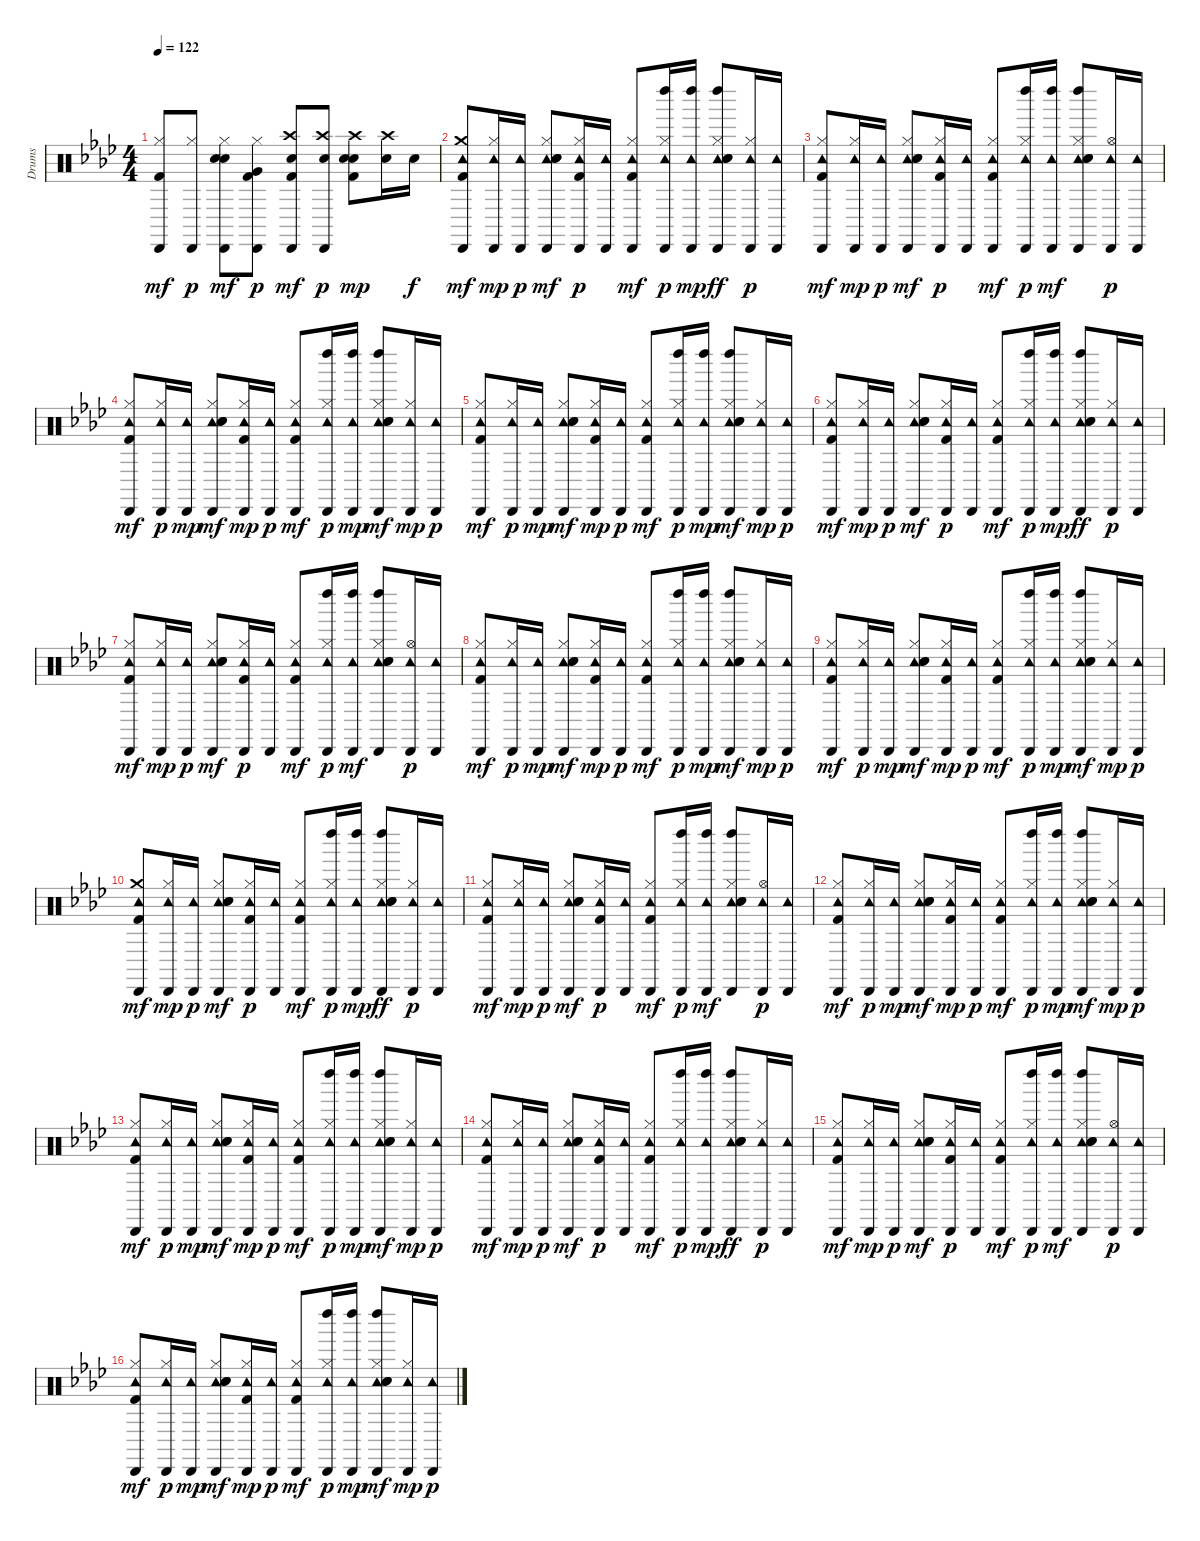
\track ("Drums" "Drums") {instrument percussion}
\staff {score}
\articulation defaults
\ts (4 4)
\tempo 122
\clef neutral
\ks ab
("Hi-Hat (closed)" "Cabasa (hit)" "Kick (hit) 2").8{dy mf} ("Hi-Hat (closed)" "Cabasa (hit)").8{dy p} ("Hi-Hat (closed)" "Cabasa (hit)" "Hand Clap (hit)" "Electric Snare (hit)").8{dy mf} ("Hi-Hat (closed)" "Cabasa (hit)" "Very Low Tom (hit)" "Kick (hit) 2").8{dy p} ("Crash high (hit)" "Cabasa (hit)" "Electric Snare (hit)" "Kick (hit) 2").8{dy mf} ("Crash high (hit)" "Cabasa (hit)" "Electric Snare (hit)").8{dy p} ("Crash high (hit)" "Hand Clap (hit)" "Electric Snare (hit)" "Kick (hit) 2").8{dy mp} ("Crash high (hit)" "Electric Snare (hit)").16 "Electric Snare (hit)".16{dy f} |
("Crash medium (hit)" "Cabasa (hit)" "Tambourine (hit)" "Kick (hit) 2").8{dy mf} ("Hi-Hat (closed)" "Cabasa (hit)" "Tambourine (hit)").16{dy mp} ("Cabasa (hit)" "Tambourine (hit)").16{dy p} ("Hi-Hat (closed)" "Cabasa (hit)" "Tambourine (hit)" "Hand Clap (hit)" "Electric Snare (hit)").8{dy mf} ("Hi-Hat (closed)" "Cabasa (hit)" "Tambourine (hit)" "Kick (hit) 2").16{dy p} ("Cabasa (hit)" "Tambourine (hit)").16 ("Hi-Hat (closed)" "Cabasa (hit)" "Tambourine (hit)" "Kick (hit) 2").8{dy mf} ("Hi-Hat (closed)" "Cabasa (hit)" "Tambourine (hit)" "Left Maraca (hit)").16{dy p} ("Cabasa (hit)" "Tambourine (hit)" "Left Maraca (hit)").16{dy mp} ("Hi-Hat (closed)" "Cabasa (hit)" "Tambourine (hit)" "Left Maraca (hit)" "Electric Snare (hit)" "Hand Clap (hit)").8{dy ff} ("Hi-Hat (closed)" "Cabasa (hit)" "Tambourine (hit)").16{dy p} ("Cabasa (hit)" "Tambourine (hit)").16 |
("Hi-Hat (closed)" "Cabasa (hit)" "Tambourine (hit)" "Kick (hit) 2").8{dy mf} ("Hi-Hat (closed)" "Cabasa (hit)" "Tambourine (hit)").16{dy mp} ("Cabasa (hit)" "Tambourine (hit)").16{dy p} ("Hi-Hat (closed)" "Cabasa (hit)" "Tambourine (hit)" "Hand Clap (hit)" "Electric Snare (hit)").8{dy mf} ("Hi-Hat (closed)" "Cabasa (hit)" "Tambourine (hit)" "Kick (hit) 2").16{dy p} ("Cabasa (hit)" "Tambourine (hit)").16 ("Hi-Hat (closed)" "Cabasa (hit)" "Tambourine (hit)" "Kick (hit) 2").8{dy mf} ("Hi-Hat (closed)" "Cabasa (hit)" "Tambourine (hit)" "Left Maraca (hit)").16{dy p} ("Cabasa (hit)" "Tambourine (hit)" "Left Maraca (hit)").16{dy mf} ("Hi-Hat (closed)" "Cabasa (hit)" "Tambourine (hit)" "Left Maraca (hit)" "Electric Snare (hit)" "Hand Clap (hit)").8 ("Hi-Hat (open)" "Cabasa (hit)" "Tambourine (hit)").16{dy p} ("Cabasa (hit)" "Tambourine (hit)").16 |
("Hi-Hat (closed)" "Cabasa (hit)" "Tambourine (hit)" "Kick (hit) 2").8{dy mf} ("Hi-Hat (closed)" "Cabasa (hit)" "Tambourine (hit)").16{dy p} ("Cabasa (hit)" "Tambourine (hit)").16{dy mp} ("Hi-Hat (closed)" "Cabasa (hit)" "Tambourine (hit)" "Electric Snare (hit)" "Hand Clap (hit)").8{dy mf} ("Hi-Hat (closed)" "Cabasa (hit)" "Tambourine (hit)" "Kick (hit) 2").16{dy mp} ("Cabasa (hit)" "Tambourine (hit)").16{dy p} ("Hi-Hat (closed)" "Cabasa (hit)" "Tambourine (hit)" "Kick (hit) 2").8{dy mf} ("Hi-Hat (closed)" "Cabasa (hit)" "Tambourine (hit)" "Left Maraca (hit)").16{dy p} ("Cabasa (hit)" "Tambourine (hit)" "Left Maraca (hit)").16{dy mp} ("Hi-Hat (closed)" "Cabasa (hit)" "Tambourine (hit)" "Left Maraca (hit)" "Electric Snare (hit)" "Hand Clap (hit)").8{dy mf} ("Hi-Hat (closed)" "Cabasa (hit)" "Tambourine (hit)").16{dy mp} ("Cabasa (hit)" "Tambourine (hit)").16{dy p} |
("Hi-Hat (closed)" "Cabasa (hit)" "Tambourine (hit)" "Kick (hit) 2").8{dy mf} ("Hi-Hat (closed)" "Cabasa (hit)" "Tambourine (hit)").16{dy p} ("Cabasa (hit)" "Tambourine (hit)").16{dy mp} ("Hi-Hat (closed)" "Cabasa (hit)" "Tambourine (hit)" "Electric Snare (hit)" "Hand Clap (hit)").8{dy mf} ("Hi-Hat (closed)" "Cabasa (hit)" "Tambourine (hit)" "Kick (hit) 2").16{dy mp} ("Cabasa (hit)" "Tambourine (hit)").16{dy p} ("Hi-Hat (closed)" "Cabasa (hit)" "Tambourine (hit)" "Kick (hit) 2").8{dy mf} ("Hi-Hat (closed)" "Cabasa (hit)" "Tambourine (hit)" "Left Maraca (hit)").16{dy p} ("Cabasa (hit)" "Tambourine (hit)" "Left Maraca (hit)").16{dy mp} ("Hi-Hat (closed)" "Cabasa (hit)" "Tambourine (hit)" "Left Maraca (hit)" "Electric Snare (hit)" "Hand Clap (hit)").8{dy mf} ("Hi-Hat (closed)" "Cabasa (hit)" "Tambourine (hit)").16{dy mp} ("Cabasa (hit)" "Tambourine (hit)").16{dy p} |
("Hi-Hat (closed)" "Cabasa (hit)" "Tambourine (hit)" "Kick (hit) 2").8{dy mf} ("Hi-Hat (closed)" "Cabasa (hit)" "Tambourine (hit)").16{dy mp} ("Cabasa (hit)" "Tambourine (hit)").16{dy p} ("Hi-Hat (closed)" "Cabasa (hit)" "Tambourine (hit)" "Hand Clap (hit)" "Electric Snare (hit)").8{dy mf} ("Hi-Hat (closed)" "Cabasa (hit)" "Tambourine (hit)" "Kick (hit) 2").16{dy p} ("Cabasa (hit)" "Tambourine (hit)").16 ("Hi-Hat (closed)" "Cabasa (hit)" "Tambourine (hit)" "Kick (hit) 2").8{dy mf} ("Hi-Hat (closed)" "Cabasa (hit)" "Tambourine (hit)" "Left Maraca (hit)").16{dy p} ("Cabasa (hit)" "Tambourine (hit)" "Left Maraca (hit)").16{dy mp} ("Hi-Hat (closed)" "Cabasa (hit)" "Tambourine (hit)" "Left Maraca (hit)" "Electric Snare (hit)" "Hand Clap (hit)").8{dy ff} ("Hi-Hat (closed)" "Cabasa (hit)" "Tambourine (hit)").16{dy p} ("Cabasa (hit)" "Tambourine (hit)").16 |
("Hi-Hat (closed)" "Cabasa (hit)" "Tambourine (hit)" "Kick (hit) 2").8{dy mf} ("Hi-Hat (closed)" "Cabasa (hit)" "Tambourine (hit)").16{dy mp} ("Cabasa (hit)" "Tambourine (hit)").16{dy p} ("Hi-Hat (closed)" "Cabasa (hit)" "Tambourine (hit)" "Hand Clap (hit)" "Electric Snare (hit)").8{dy mf} ("Hi-Hat (closed)" "Cabasa (hit)" "Tambourine (hit)" "Kick (hit) 2").16{dy p} ("Cabasa (hit)" "Tambourine (hit)").16 ("Hi-Hat (closed)" "Cabasa (hit)" "Tambourine (hit)" "Kick (hit) 2").8{dy mf} ("Hi-Hat (closed)" "Cabasa (hit)" "Tambourine (hit)" "Left Maraca (hit)").16{dy p} ("Cabasa (hit)" "Tambourine (hit)" "Left Maraca (hit)").16{dy mf} ("Hi-Hat (closed)" "Cabasa (hit)" "Tambourine (hit)" "Left Maraca (hit)" "Electric Snare (hit)" "Hand Clap (hit)").8 ("Hi-Hat (open)" "Cabasa (hit)" "Tambourine (hit)").16{dy p} ("Cabasa (hit)" "Tambourine (hit)").16 |
("Hi-Hat (closed)" "Cabasa (hit)" "Tambourine (hit)" "Kick (hit) 2").8{dy mf} ("Hi-Hat (closed)" "Cabasa (hit)" "Tambourine (hit)").16{dy p} ("Cabasa (hit)" "Tambourine (hit)").16{dy mp} ("Hi-Hat (closed)" "Cabasa (hit)" "Tambourine (hit)" "Electric Snare (hit)" "Hand Clap (hit)").8{dy mf} ("Hi-Hat (closed)" "Cabasa (hit)" "Tambourine (hit)" "Kick (hit) 2").16{dy mp} ("Cabasa (hit)" "Tambourine (hit)").16{dy p} ("Hi-Hat (closed)" "Cabasa (hit)" "Tambourine (hit)" "Kick (hit) 2").8{dy mf} ("Hi-Hat (closed)" "Cabasa (hit)" "Tambourine (hit)" "Left Maraca (hit)").16{dy p} ("Cabasa (hit)" "Tambourine (hit)" "Left Maraca (hit)").16{dy mp} ("Hi-Hat (closed)" "Cabasa (hit)" "Tambourine (hit)" "Left Maraca (hit)" "Electric Snare (hit)" "Hand Clap (hit)").8{dy mf} ("Hi-Hat (closed)" "Cabasa (hit)" "Tambourine (hit)").16{dy mp} ("Cabasa (hit)" "Tambourine (hit)").16{dy p} |
("Hi-Hat (closed)" "Cabasa (hit)" "Tambourine (hit)" "Kick (hit) 2").8{dy mf} ("Hi-Hat (closed)" "Cabasa (hit)" "Tambourine (hit)").16{dy p} ("Cabasa (hit)" "Tambourine (hit)").16{dy mp} ("Hi-Hat (closed)" "Cabasa (hit)" "Tambourine (hit)" "Electric Snare (hit)" "Hand Clap (hit)").8{dy mf} ("Hi-Hat (closed)" "Cabasa (hit)" "Tambourine (hit)" "Kick (hit) 2").16{dy mp} ("Cabasa (hit)" "Tambourine (hit)").16{dy p} ("Hi-Hat (closed)" "Cabasa (hit)" "Tambourine (hit)" "Kick (hit) 2").8{dy mf} ("Hi-Hat (closed)" "Cabasa (hit)" "Tambourine (hit)" "Left Maraca (hit)").16{dy p} ("Cabasa (hit)" "Tambourine (hit)" "Left Maraca (hit)").16{dy mp} ("Hi-Hat (closed)" "Cabasa (hit)" "Tambourine (hit)" "Left Maraca (hit)" "Electric Snare (hit)" "Hand Clap (hit)").8{dy mf} ("Hi-Hat (closed)" "Cabasa (hit)" "Tambourine (hit)").16{dy mp} ("Cabasa (hit)" "Tambourine (hit)").16{dy p} |
("Crash medium (hit)" "Cabasa (hit)" "Tambourine (hit)" "Kick (hit) 2").8{dy mf} ("Hi-Hat (closed)" "Cabasa (hit)" "Tambourine (hit)").16{dy mp} ("Cabasa (hit)" "Tambourine (hit)").16{dy p} ("Hi-Hat (closed)" "Cabasa (hit)" "Tambourine (hit)" "Hand Clap (hit)" "Electric Snare (hit)").8{dy mf} ("Hi-Hat (closed)" "Cabasa (hit)" "Tambourine (hit)" "Kick (hit) 2").16{dy p} ("Cabasa (hit)" "Tambourine (hit)").16 ("Hi-Hat (closed)" "Cabasa (hit)" "Tambourine (hit)" "Kick (hit) 2").8{dy mf} ("Hi-Hat (closed)" "Cabasa (hit)" "Tambourine (hit)" "Left Maraca (hit)").16{dy p} ("Cabasa (hit)" "Tambourine (hit)" "Left Maraca (hit)").16{dy mp} ("Hi-Hat (closed)" "Cabasa (hit)" "Tambourine (hit)" "Left Maraca (hit)" "Electric Snare (hit)" "Hand Clap (hit)").8{dy ff} ("Hi-Hat (closed)" "Cabasa (hit)" "Tambourine (hit)").16{dy p} ("Cabasa (hit)" "Tambourine (hit)").16 |
("Hi-Hat (closed)" "Cabasa (hit)" "Tambourine (hit)" "Kick (hit) 2").8{dy mf} ("Hi-Hat (closed)" "Cabasa (hit)" "Tambourine (hit)").16{dy mp} ("Cabasa (hit)" "Tambourine (hit)").16{dy p} ("Hi-Hat (closed)" "Cabasa (hit)" "Tambourine (hit)" "Hand Clap (hit)" "Electric Snare (hit)").8{dy mf} ("Hi-Hat (closed)" "Cabasa (hit)" "Tambourine (hit)" "Kick (hit) 2").16{dy p} ("Cabasa (hit)" "Tambourine (hit)").16 ("Hi-Hat (closed)" "Cabasa (hit)" "Tambourine (hit)" "Kick (hit) 2").8{dy mf} ("Hi-Hat (closed)" "Cabasa (hit)" "Tambourine (hit)" "Left Maraca (hit)").16{dy p} ("Cabasa (hit)" "Tambourine (hit)" "Left Maraca (hit)").16{dy mf} ("Hi-Hat (closed)" "Cabasa (hit)" "Tambourine (hit)" "Left Maraca (hit)" "Electric Snare (hit)" "Hand Clap (hit)").8 ("Hi-Hat (open)" "Cabasa (hit)" "Tambourine (hit)").16{dy p} ("Cabasa (hit)" "Tambourine (hit)").16 |
("Hi-Hat (closed)" "Cabasa (hit)" "Tambourine (hit)" "Kick (hit) 2").8{dy mf} ("Hi-Hat (closed)" "Cabasa (hit)" "Tambourine (hit)").16{dy p} ("Cabasa (hit)" "Tambourine (hit)").16{dy mp} ("Hi-Hat (closed)" "Cabasa (hit)" "Tambourine (hit)" "Electric Snare (hit)" "Hand Clap (hit)").8{dy mf} ("Hi-Hat (closed)" "Cabasa (hit)" "Tambourine (hit)" "Kick (hit) 2").16{dy mp} ("Cabasa (hit)" "Tambourine (hit)").16{dy p} ("Hi-Hat (closed)" "Cabasa (hit)" "Tambourine (hit)" "Kick (hit) 2").8{dy mf} ("Hi-Hat (closed)" "Cabasa (hit)" "Tambourine (hit)" "Left Maraca (hit)").16{dy p} ("Cabasa (hit)" "Tambourine (hit)" "Left Maraca (hit)").16{dy mp} ("Hi-Hat (closed)" "Cabasa (hit)" "Tambourine (hit)" "Left Maraca (hit)" "Electric Snare (hit)" "Hand Clap (hit)").8{dy mf} ("Hi-Hat (closed)" "Cabasa (hit)" "Tambourine (hit)").16{dy mp} ("Cabasa (hit)" "Tambourine (hit)").16{dy p} |
("Hi-Hat (closed)" "Cabasa (hit)" "Tambourine (hit)" "Kick (hit) 2").8{dy mf} ("Hi-Hat (closed)" "Cabasa (hit)" "Tambourine (hit)").16{dy p} ("Cabasa (hit)" "Tambourine (hit)").16{dy mp} ("Hi-Hat (closed)" "Cabasa (hit)" "Tambourine (hit)" "Electric Snare (hit)" "Hand Clap (hit)").8{dy mf} ("Hi-Hat (closed)" "Cabasa (hit)" "Tambourine (hit)" "Kick (hit) 2").16{dy mp} ("Cabasa (hit)" "Tambourine (hit)").16{dy p} ("Hi-Hat (closed)" "Cabasa (hit)" "Tambourine (hit)" "Kick (hit) 2").8{dy mf} ("Hi-Hat (closed)" "Cabasa (hit)" "Tambourine (hit)" "Left Maraca (hit)").16{dy p} ("Cabasa (hit)" "Tambourine (hit)" "Left Maraca (hit)").16{dy mp} ("Hi-Hat (closed)" "Cabasa (hit)" "Tambourine (hit)" "Left Maraca (hit)" "Electric Snare (hit)" "Hand Clap (hit)").8{dy mf} ("Hi-Hat (closed)" "Cabasa (hit)" "Tambourine (hit)").16{dy mp} ("Cabasa (hit)" "Tambourine (hit)").16{dy p} |
("Hi-Hat (closed)" "Cabasa (hit)" "Tambourine (hit)" "Kick (hit) 2").8{dy mf} ("Hi-Hat (closed)" "Cabasa (hit)" "Tambourine (hit)").16{dy mp} ("Cabasa (hit)" "Tambourine (hit)").16{dy p} ("Hi-Hat (closed)" "Cabasa (hit)" "Tambourine (hit)" "Hand Clap (hit)" "Electric Snare (hit)").8{dy mf} ("Hi-Hat (closed)" "Cabasa (hit)" "Tambourine (hit)" "Kick (hit) 2").16{dy p} ("Cabasa (hit)" "Tambourine (hit)").16 ("Hi-Hat (closed)" "Cabasa (hit)" "Tambourine (hit)" "Kick (hit) 2").8{dy mf} ("Hi-Hat (closed)" "Cabasa (hit)" "Tambourine (hit)" "Left Maraca (hit)").16{dy p} ("Cabasa (hit)" "Tambourine (hit)" "Left Maraca (hit)").16{dy mp} ("Hi-Hat (closed)" "Cabasa (hit)" "Tambourine (hit)" "Left Maraca (hit)" "Electric Snare (hit)" "Hand Clap (hit)").8{dy ff} ("Hi-Hat (closed)" "Cabasa (hit)" "Tambourine (hit)").16{dy p} ("Cabasa (hit)" "Tambourine (hit)").16 |
("Hi-Hat (closed)" "Cabasa (hit)" "Tambourine (hit)" "Kick (hit) 2").8{dy mf} ("Hi-Hat (closed)" "Cabasa (hit)" "Tambourine (hit)").16{dy mp} ("Cabasa (hit)" "Tambourine (hit)").16{dy p} ("Hi-Hat (closed)" "Cabasa (hit)" "Tambourine (hit)" "Hand Clap (hit)" "Electric Snare (hit)").8{dy mf} ("Hi-Hat (closed)" "Cabasa (hit)" "Tambourine (hit)" "Kick (hit) 2").16{dy p} ("Cabasa (hit)" "Tambourine (hit)").16 ("Hi-Hat (closed)" "Cabasa (hit)" "Tambourine (hit)" "Kick (hit) 2").8{dy mf} ("Hi-Hat (closed)" "Cabasa (hit)" "Tambourine (hit)" "Left Maraca (hit)").16{dy p} ("Cabasa (hit)" "Tambourine (hit)" "Left Maraca (hit)").16{dy mf} ("Hi-Hat (closed)" "Cabasa (hit)" "Tambourine (hit)" "Left Maraca (hit)" "Electric Snare (hit)" "Hand Clap (hit)").8 ("Hi-Hat (open)" "Cabasa (hit)" "Tambourine (hit)").16{dy p} ("Cabasa (hit)" "Tambourine (hit)").16 |
("Hi-Hat (closed)" "Cabasa (hit)" "Tambourine (hit)" "Kick (hit) 2").8{dy mf} ("Hi-Hat (closed)" "Cabasa (hit)" "Tambourine (hit)").16{dy p} ("Cabasa (hit)" "Tambourine (hit)").16{dy mp} ("Hi-Hat (closed)" "Cabasa (hit)" "Tambourine (hit)" "Electric Snare (hit)" "Hand Clap (hit)").8{dy mf} ("Hi-Hat (closed)" "Cabasa (hit)" "Tambourine (hit)" "Kick (hit) 2").16{dy mp} ("Cabasa (hit)" "Tambourine (hit)").16{dy p} ("Hi-Hat (closed)" "Cabasa (hit)" "Tambourine (hit)" "Kick (hit) 2").8{dy mf} ("Hi-Hat (closed)" "Cabasa (hit)" "Tambourine (hit)" "Left Maraca (hit)").16{dy p} ("Cabasa (hit)" "Tambourine (hit)" "Left Maraca (hit)").16{dy mp} ("Hi-Hat (closed)" "Cabasa (hit)" "Tambourine (hit)" "Left Maraca (hit)" "Electric Snare (hit)" "Hand Clap (hit)").8{dy mf} ("Hi-Hat (closed)" "Cabasa (hit)" "Tambourine (hit)").16{dy mp} ("Cabasa (hit)" "Tambourine (hit)").16{dy p}
